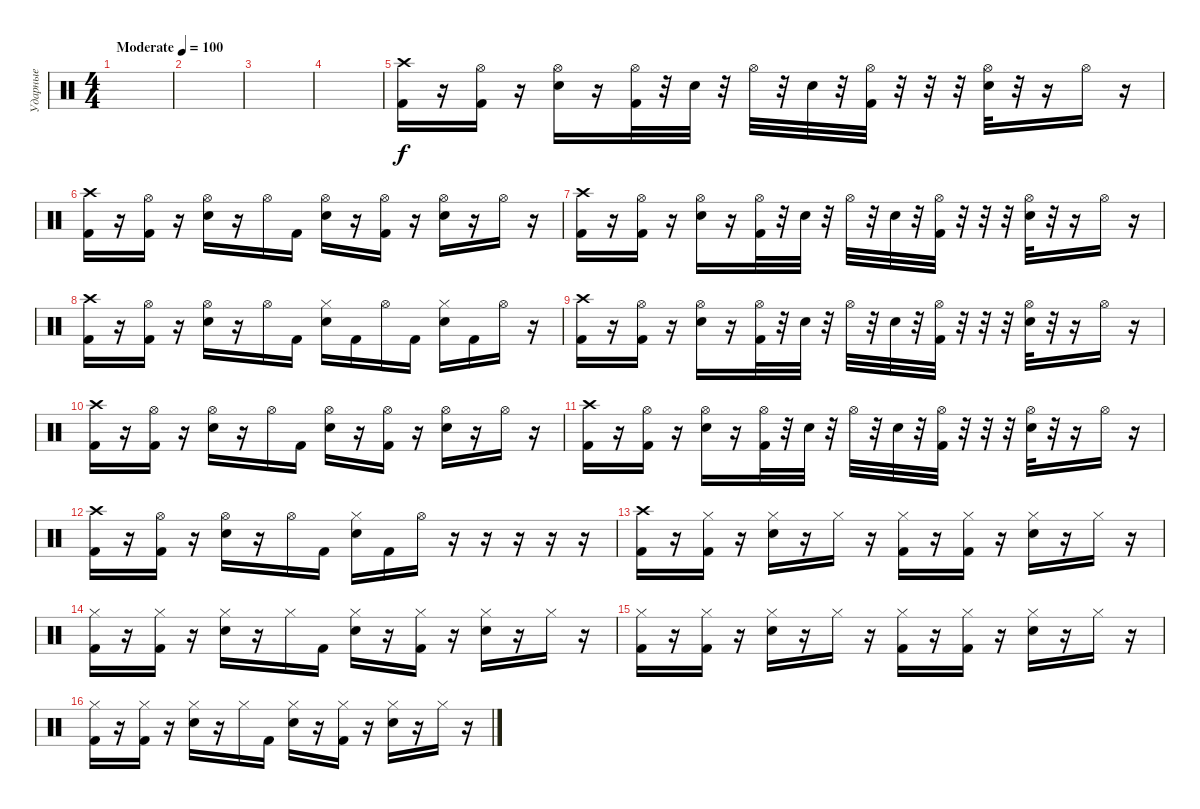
\track ("Ударные" "Ударные") {instrument percussion}
\staff {score}
\articulation defaults
\ts (4 4)
\tempo (100 "Moderate")
\clef neutral
\ks c
|
|
|
|
("Crash high (hit)" "Kick (hit) 2").16 r.16 ("Hi-Hat (open)" "Kick (hit) 2").16 r.16 ("Hi-Hat (open)" "Electric Snare (hit)").16 r.16 ("Hi-Hat (open)" "Kick (hit) 2").32 r.32 "Electric Snare (hit)".32 r.32 "Hi-Hat (open)".32 r.32 "Electric Snare (hit)".32 r.32 ("Hi-Hat (open)" "Kick (hit) 2").32 r.32 r.32 r.32 ("Hi-Hat (open)" "Electric Snare (hit)").32 r.32 r.16 "Hi-Hat (open)".16 r.16 |
("Crash high (hit)" "Kick (hit) 2").16 r.16 ("Hi-Hat (open)" "Kick (hit) 2").16 r.16 ("Hi-Hat (open)" "Electric Snare (hit)").16 r.16 "Hi-Hat (open)".16 "Kick (hit) 2".16 ("Hi-Hat (open)" "Electric Snare (hit)").16 r.16 ("Hi-Hat (open)" "Kick (hit) 2").16 r.16 ("Hi-Hat (open)" "Electric Snare (hit)").16 r.16 "Hi-Hat (open)".16 r.16 |
("Crash high (hit)" "Kick (hit) 2").16 r.16 ("Hi-Hat (open)" "Kick (hit) 2").16 r.16 ("Hi-Hat (open)" "Electric Snare (hit)").16 r.16 ("Hi-Hat (open)" "Kick (hit) 2").32 r.32 "Electric Snare (hit)".32 r.32 "Hi-Hat (open)".32 r.32 "Electric Snare (hit)".32 r.32 ("Hi-Hat (open)" "Kick (hit) 2").32 r.32 r.32 r.32 ("Hi-Hat (open)" "Electric Snare (hit)").32 r.32 r.16 "Hi-Hat (open)".16 r.16 |
("Crash high (hit)" "Kick (hit) 2").16 r.16 ("Hi-Hat (open)" "Kick (hit) 2").16 r.16 ("Hi-Hat (open)" "Electric Snare (hit)").16 r.16 "Hi-Hat (open)".16 "Kick (hit) 2".16 ("Hi-Hat (closed)" "Electric Snare (hit)").16 "Kick (hit) 2".16 "Hi-Hat (open)".16 "Kick (hit) 2".16 ("Hi-Hat (closed)" "Electric Snare (hit)").16 "Kick (hit) 2".16 "Hi-Hat (open)".16 r.16 |
("Crash high (hit)" "Kick (hit) 2").16 r.16 ("Hi-Hat (open)" "Kick (hit) 2").16 r.16 ("Hi-Hat (open)" "Electric Snare (hit)").16 r.16 ("Hi-Hat (open)" "Kick (hit) 2").32 r.32 "Electric Snare (hit)".32 r.32 "Hi-Hat (open)".32 r.32 "Electric Snare (hit)".32 r.32 ("Hi-Hat (open)" "Kick (hit) 2").32 r.32 r.32 r.32 ("Hi-Hat (open)" "Electric Snare (hit)").32 r.32 r.16 "Hi-Hat (open)".16 r.16 |
("Crash high (hit)" "Kick (hit) 2").16 r.16 ("Hi-Hat (open)" "Kick (hit) 2").16 r.16 ("Hi-Hat (open)" "Electric Snare (hit)").16 r.16 "Hi-Hat (open)".16 "Kick (hit) 2".16 ("Hi-Hat (open)" "Electric Snare (hit)").16 r.16 ("Hi-Hat (open)" "Kick (hit) 2").16 r.16 ("Hi-Hat (open)" "Electric Snare (hit)").16 r.16 "Hi-Hat (open)".16 r.16 |
("Crash high (hit)" "Kick (hit) 2").16 r.16 ("Hi-Hat (open)" "Kick (hit) 2").16 r.16 ("Hi-Hat (open)" "Electric Snare (hit)").16 r.16 ("Hi-Hat (open)" "Kick (hit) 2").32 r.32 "Electric Snare (hit)".32 r.32 "Hi-Hat (open)".32 r.32 "Electric Snare (hit)".32 r.32 ("Hi-Hat (open)" "Kick (hit) 2").32 r.32 r.32 r.32 ("Hi-Hat (open)" "Electric Snare (hit)").32 r.32 r.16 "Hi-Hat (open)".16 r.16 |
("Crash high (hit)" "Kick (hit) 2").16 r.16 ("Hi-Hat (open)" "Kick (hit) 2").16 r.16 ("Hi-Hat (open)" "Electric Snare (hit)").16 r.16 "Hi-Hat (open)".16 "Kick (hit) 2".16 ("Hi-Hat (closed)" "Electric Snare (hit)").16 "Kick (hit) 2".16 "Hi-Hat (open)".16 r.16 r.16 r.16 r.16 r.16 |
("Crash high (hit)" "Kick (hit) 2").16 r.16 ("Hi-Hat (closed)" "Kick (hit) 2").16 r.16 ("Hi-Hat (closed)" "Electric Snare (hit)").16 r.16 "Hi-Hat (closed)".16 r.16 ("Hi-Hat (closed)" "Kick (hit) 2").16 r.16 ("Hi-Hat (closed)" "Kick (hit) 2").16 r.16 ("Hi-Hat (closed)" "Electric Snare (hit)").16 r.16 "Hi-Hat (closed)".16 r.16 |
("Hi-Hat (closed)" "Kick (hit) 2").16 r.16 ("Hi-Hat (closed)" "Kick (hit) 2").16 r.16 ("Hi-Hat (closed)" "Electric Snare (hit)").16 r.16 "Hi-Hat (closed)".16 "Kick (hit) 2".16 ("Hi-Hat (closed)" "Electric Snare (hit)").16 r.16 ("Hi-Hat (closed)" "Kick (hit) 2").16 r.16 ("Hi-Hat (closed)" "Electric Snare (hit)").16 r.16 "Hi-Hat (closed)".16 r.16 |
("Hi-Hat (closed)" "Kick (hit) 2").16 r.16 ("Hi-Hat (closed)" "Kick (hit) 2").16 r.16 ("Hi-Hat (closed)" "Electric Snare (hit)").16 r.16 "Hi-Hat (closed)".16 r.16 ("Hi-Hat (closed)" "Kick (hit) 2").16 r.16 ("Hi-Hat (closed)" "Kick (hit) 2").16 r.16 ("Hi-Hat (closed)" "Electric Snare (hit)").16 r.16 "Hi-Hat (closed)".16 r.16 |
("Hi-Hat (closed)" "Kick (hit) 2").16 r.16 ("Hi-Hat (closed)" "Kick (hit) 2").16 r.16 ("Hi-Hat (closed)" "Electric Snare (hit)").16 r.16 "Hi-Hat (closed)".16 "Kick (hit) 2".16 ("Hi-Hat (closed)" "Electric Snare (hit)").16 r.16 ("Hi-Hat (closed)" "Kick (hit) 2").16 r.16 ("Hi-Hat (closed)" "Electric Snare (hit)").16 r.16 "Hi-Hat (closed)".16 r.16
